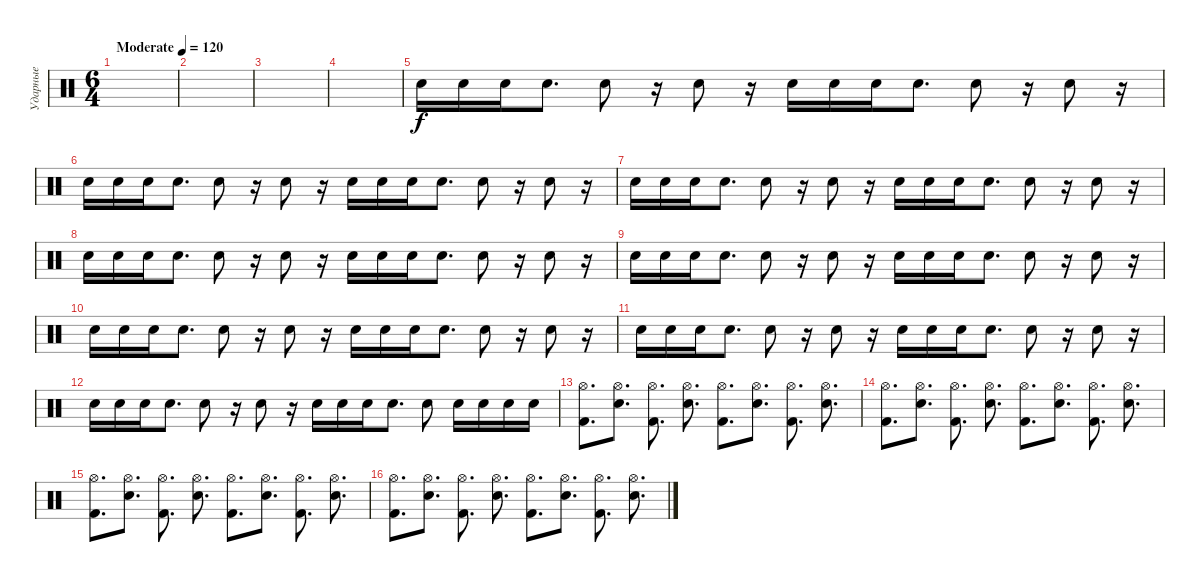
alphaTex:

\track ("Ударные" "Ударные") {instrument percussion}
\staff {score}
\articulation defaults
\ts (6 4)
\tempo (120 "Moderate")
\clef neutral
\ks c
|
|
|
|
"Electric Snare (hit)".16 "Electric Snare (hit)".16 "Electric Snare (hit)".16 "Electric Snare (hit)".8{d} "Electric Snare (hit)".8 r.16 "Electric Snare (hit)".8 r.16 "Electric Snare (hit)".16 "Electric Snare (hit)".16 "Electric Snare (hit)".16 "Electric Snare (hit)".8{d} "Electric Snare (hit)".8 r.16 "Electric Snare (hit)".8 r.16 |
"Electric Snare (hit)".16 "Electric Snare (hit)".16 "Electric Snare (hit)".16 "Electric Snare (hit)".8{d} "Electric Snare (hit)".8 r.16 "Electric Snare (hit)".8 r.16 "Electric Snare (hit)".16 "Electric Snare (hit)".16 "Electric Snare (hit)".16 "Electric Snare (hit)".8{d} "Electric Snare (hit)".8 r.16 "Electric Snare (hit)".8 r.16 |
"Electric Snare (hit)".16 "Electric Snare (hit)".16 "Electric Snare (hit)".16 "Electric Snare (hit)".8{d} "Electric Snare (hit)".8 r.16 "Electric Snare (hit)".8 r.16 "Electric Snare (hit)".16 "Electric Snare (hit)".16 "Electric Snare (hit)".16 "Electric Snare (hit)".8{d} "Electric Snare (hit)".8 r.16 "Electric Snare (hit)".8 r.16 |
"Electric Snare (hit)".16 "Electric Snare (hit)".16 "Electric Snare (hit)".16 "Electric Snare (hit)".8{d} "Electric Snare (hit)".8 r.16 "Electric Snare (hit)".8 r.16 "Electric Snare (hit)".16 "Electric Snare (hit)".16 "Electric Snare (hit)".16 "Electric Snare (hit)".8{d} "Electric Snare (hit)".8 r.16 "Electric Snare (hit)".8 r.16 |
"Electric Snare (hit)".16 "Electric Snare (hit)".16 "Electric Snare (hit)".16 "Electric Snare (hit)".8{d} "Electric Snare (hit)".8 r.16 "Electric Snare (hit)".8 r.16 "Electric Snare (hit)".16 "Electric Snare (hit)".16 "Electric Snare (hit)".16 "Electric Snare (hit)".8{d} "Electric Snare (hit)".8 r.16 "Electric Snare (hit)".8 r.16 |
"Electric Snare (hit)".16 "Electric Snare (hit)".16 "Electric Snare (hit)".16 "Electric Snare (hit)".8{d} "Electric Snare (hit)".8 r.16 "Electric Snare (hit)".8 r.16 "Electric Snare (hit)".16 "Electric Snare (hit)".16 "Electric Snare (hit)".16 "Electric Snare (hit)".8{d} "Electric Snare (hit)".8 r.16 "Electric Snare (hit)".8 r.16 |
"Electric Snare (hit)".16 "Electric Snare (hit)".16 "Electric Snare (hit)".16 "Electric Snare (hit)".8{d} "Electric Snare (hit)".8 r.16 "Electric Snare (hit)".8 r.16 "Electric Snare (hit)".16 "Electric Snare (hit)".16 "Electric Snare (hit)".16 "Electric Snare (hit)".8{d} "Electric Snare (hit)".8 r.16 "Electric Snare (hit)".8 r.16 |
"Electric Snare (hit)".16 "Electric Snare (hit)".16 "Electric Snare (hit)".16 "Electric Snare (hit)".8{d} "Electric Snare (hit)".8 r.16 "Electric Snare (hit)".8 r.16 "Electric Snare (hit)".16 "Electric Snare (hit)".16 "Electric Snare (hit)".16 "Electric Snare (hit)".8{d} "Electric Snare (hit)".8 "Electric Snare (hit)".16 "Electric Snare (hit)".16 "Electric Snare (hit)".16 "Electric Snare (hit)".16 |
("Hi-Hat (open)" "Kick (hit) 2").8{d} ("Electric Snare (hit)" "Hi-Hat (open)").8{d} ("Hi-Hat (open)" "Kick (hit) 2").8{d} ("Electric Snare (hit)" "Hi-Hat (open)").8{d} ("Hi-Hat (open)" "Kick (hit) 2").8{d} ("Electric Snare (hit)" "Hi-Hat (open)").8{d} ("Hi-Hat (open)" "Kick (hit) 2").8{d} ("Electric Snare (hit)" "Hi-Hat (open)").8{d} |
("Hi-Hat (open)" "Kick (hit) 2").8{d} ("Electric Snare (hit)" "Hi-Hat (open)").8{d} ("Hi-Hat (open)" "Kick (hit) 2").8{d} ("Electric Snare (hit)" "Hi-Hat (open)").8{d} ("Hi-Hat (open)" "Kick (hit) 2").8{d} ("Electric Snare (hit)" "Hi-Hat (open)").8{d} ("Hi-Hat (open)" "Kick (hit) 2").8{d} ("Electric Snare (hit)" "Hi-Hat (open)").8{d} |
("Hi-Hat (open)" "Kick (hit) 2").8{d} ("Electric Snare (hit)" "Hi-Hat (open)").8{d} ("Hi-Hat (open)" "Kick (hit) 2").8{d} ("Electric Snare (hit)" "Hi-Hat (open)").8{d} ("Hi-Hat (open)" "Kick (hit) 2").8{d} ("Electric Snare (hit)" "Hi-Hat (open)").8{d} ("Hi-Hat (open)" "Kick (hit) 2").8{d} ("Electric Snare (hit)" "Hi-Hat (open)").8{d} |
("Hi-Hat (open)" "Kick (hit) 2").8{d} ("Electric Snare (hit)" "Hi-Hat (open)").8{d} ("Hi-Hat (open)" "Kick (hit) 2").8{d} ("Electric Snare (hit)" "Hi-Hat (open)").8{d} ("Hi-Hat (open)" "Kick (hit) 2").8{d} ("Electric Snare (hit)" "Hi-Hat (open)").8{d} ("Hi-Hat (open)" "Kick (hit) 2").8{d} ("Electric Snare (hit)" "Hi-Hat (open)").8{d}
